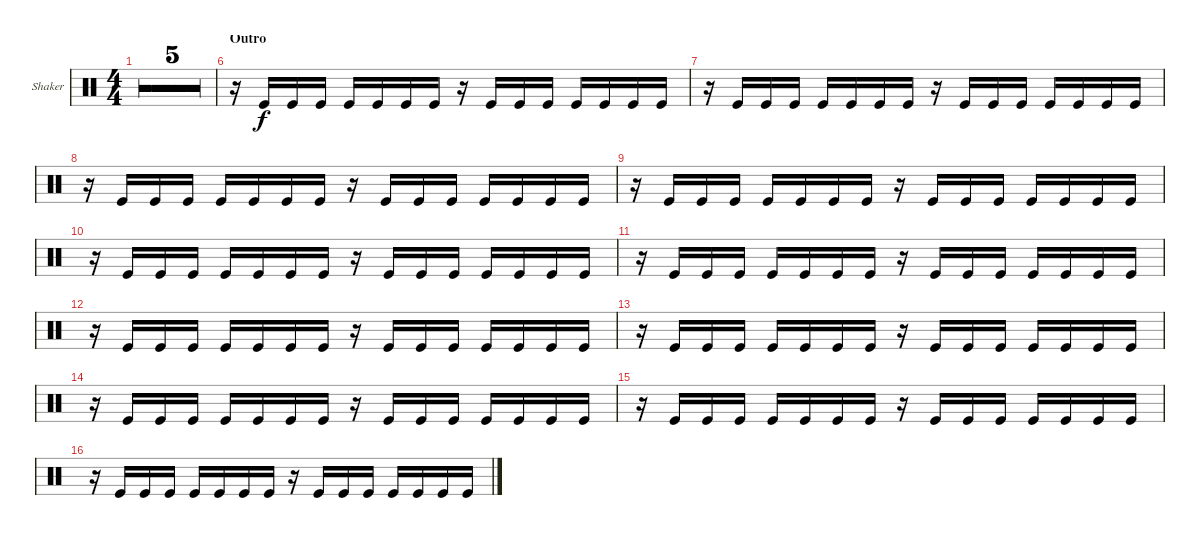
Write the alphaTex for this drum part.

\bracketExtendMode groupsimilarinstruments
\firstSystemTrackNameOrientation horizontal
\otherSystemsTrackNameOrientation horizontal
\track ("Shaker" "Shaker") {multiBarRest instrument percussion}
\staff {score}
\articulation defaults
\ts (4 4)
\tempo 90
\clef neutral
\ks c
r.16{dy f} r.16 r.16 r.16 r.16 r.16 r.16 r.16 r.16 r.16 r.16 r.16 r.16 r.16 r.16 r.16 |
r.16 r.16 r.16 r.16 r.16 r.16 r.16 r.16 r.16 r.16 r.16 r.16 r.16 r.16 r.16 r.16 |
r.16 r.16 r.16 r.16 r.16 r.16 r.16 r.16 r.16 r.16 r.16 r.16 r.16 r.16 r.16 r.16 |
r.16 r.16 r.16 r.16 r.16 r.16 r.16 r.16 r.16 r.16 r.16 r.16 r.16 r.16 r.16 r.16 |
r.16 r.16 r.16 r.16 r.16 r.16 r.16 r.16 r.16 r.16 r.16 r.16 r.16 r.16 r.16 r.16 |
\section ("" "Outro")
r.16 "Kick (hit)".16 "Kick (hit)".16 "Kick (hit)".16 "Kick (hit)".16 "Kick (hit)".16 "Kick (hit)".16 "Kick (hit)".16 r.16 "Kick (hit)".16 "Kick (hit)".16 "Kick (hit)".16 "Kick (hit)".16 "Kick (hit)".16 "Kick (hit)".16 "Kick (hit)".16 |
r.16 "Kick (hit)".16 "Kick (hit)".16 "Kick (hit)".16 "Kick (hit)".16 "Kick (hit)".16 "Kick (hit)".16 "Kick (hit)".16 r.16 "Kick (hit)".16 "Kick (hit)".16 "Kick (hit)".16 "Kick (hit)".16 "Kick (hit)".16 "Kick (hit)".16 "Kick (hit)".16 |
r.16 "Kick (hit)".16 "Kick (hit)".16 "Kick (hit)".16 "Kick (hit)".16 "Kick (hit)".16 "Kick (hit)".16 "Kick (hit)".16 r.16 "Kick (hit)".16 "Kick (hit)".16 "Kick (hit)".16 "Kick (hit)".16 "Kick (hit)".16 "Kick (hit)".16 "Kick (hit)".16 |
r.16 "Kick (hit)".16 "Kick (hit)".16 "Kick (hit)".16 "Kick (hit)".16 "Kick (hit)".16 "Kick (hit)".16 "Kick (hit)".16 r.16 "Kick (hit)".16 "Kick (hit)".16 "Kick (hit)".16 "Kick (hit)".16 "Kick (hit)".16 "Kick (hit)".16 "Kick (hit)".16 |
r.16 "Kick (hit)".16 "Kick (hit)".16 "Kick (hit)".16 "Kick (hit)".16 "Kick (hit)".16 "Kick (hit)".16 "Kick (hit)".16 r.16 "Kick (hit)".16 "Kick (hit)".16 "Kick (hit)".16 "Kick (hit)".16 "Kick (hit)".16 "Kick (hit)".16 "Kick (hit)".16 |
r.16 "Kick (hit)".16 "Kick (hit)".16 "Kick (hit)".16 "Kick (hit)".16 "Kick (hit)".16 "Kick (hit)".16 "Kick (hit)".16 r.16 "Kick (hit)".16 "Kick (hit)".16 "Kick (hit)".16 "Kick (hit)".16 "Kick (hit)".16 "Kick (hit)".16 "Kick (hit)".16 |
r.16 "Kick (hit)".16 "Kick (hit)".16 "Kick (hit)".16 "Kick (hit)".16 "Kick (hit)".16 "Kick (hit)".16 "Kick (hit)".16 r.16 "Kick (hit)".16 "Kick (hit)".16 "Kick (hit)".16 "Kick (hit)".16 "Kick (hit)".16 "Kick (hit)".16 "Kick (hit)".16 |
r.16 "Kick (hit)".16 "Kick (hit)".16 "Kick (hit)".16 "Kick (hit)".16 "Kick (hit)".16 "Kick (hit)".16 "Kick (hit)".16 r.16 "Kick (hit)".16 "Kick (hit)".16 "Kick (hit)".16 "Kick (hit)".16 "Kick (hit)".16 "Kick (hit)".16 "Kick (hit)".16 |
r.16 "Kick (hit)".16 "Kick (hit)".16 "Kick (hit)".16 "Kick (hit)".16 "Kick (hit)".16 "Kick (hit)".16 "Kick (hit)".16 r.16 "Kick (hit)".16 "Kick (hit)".16 "Kick (hit)".16 "Kick (hit)".16 "Kick (hit)".16 "Kick (hit)".16 "Kick (hit)".16 |
r.16 "Kick (hit)".16 "Kick (hit)".16 "Kick (hit)".16 "Kick (hit)".16 "Kick (hit)".16 "Kick (hit)".16 "Kick (hit)".16 r.16 "Kick (hit)".16 "Kick (hit)".16 "Kick (hit)".16 "Kick (hit)".16 "Kick (hit)".16 "Kick (hit)".16 "Kick (hit)".16 |
r.16 "Kick (hit)".16 "Kick (hit)".16 "Kick (hit)".16 "Kick (hit)".16 "Kick (hit)".16 "Kick (hit)".16 "Kick (hit)".16 r.16 "Kick (hit)".16 "Kick (hit)".16 "Kick (hit)".16 "Kick (hit)".16 "Kick (hit)".16 "Kick (hit)".16 "Kick (hit)".16
